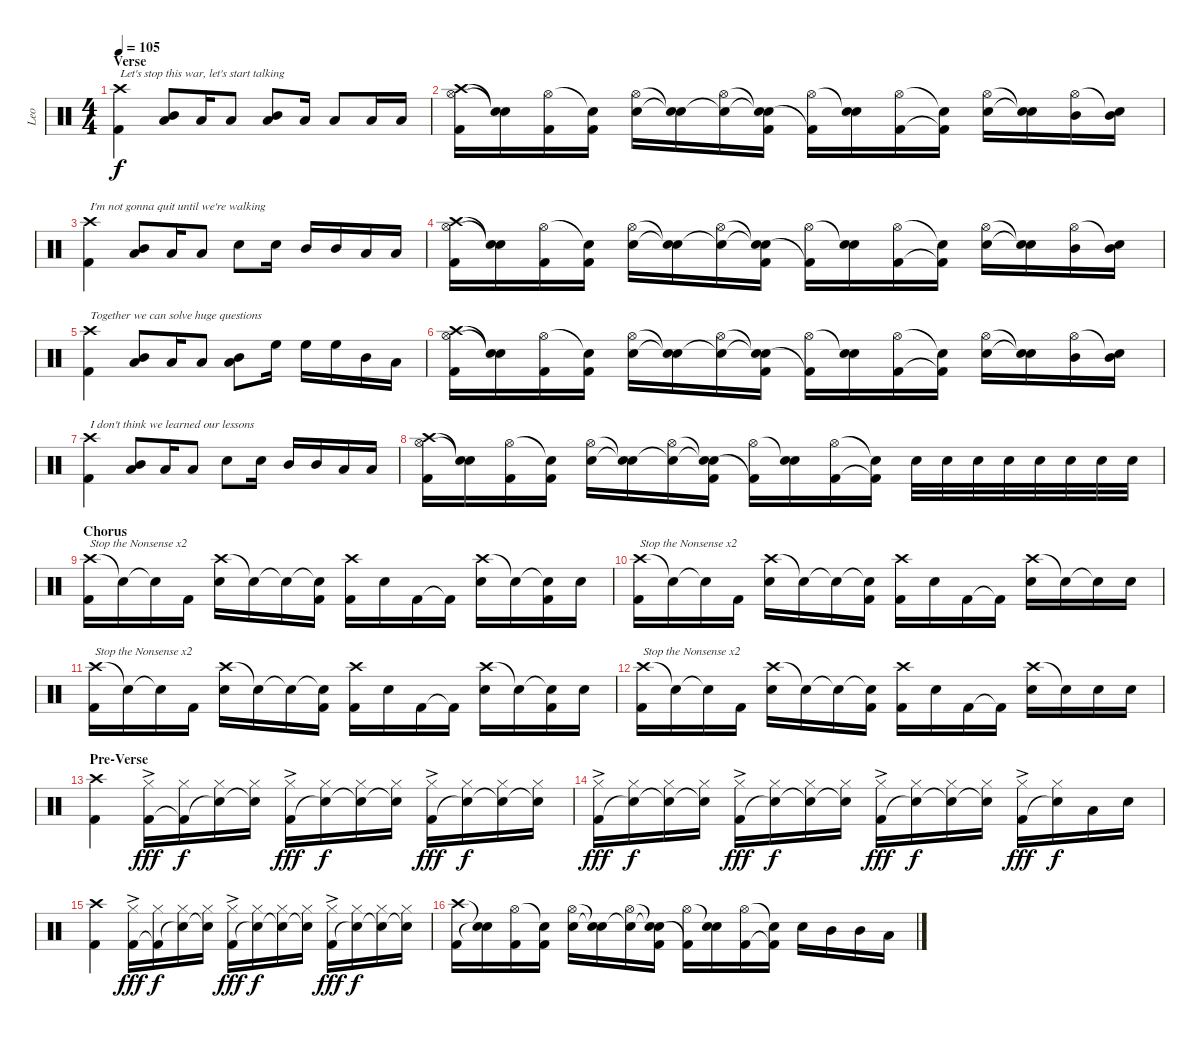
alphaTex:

\track ("Leo" "Leo") {instrument percussion}
\staff {score}
\articulation defaults
\ts (4 4)
\section ("" "Verse")
\tempo 105
\clef neutral
\ks c
("Crash high (hit)" "Kick (hit) 2").4{txt "Let's stop this war, let's start talking" dy f} ("Mid Tom (hit)" "Low Floor Tom (hit)").8 "Low Floor Tom (hit)".16 "Low Floor Tom (hit)".8 ("Mid Tom (hit)" "Low Floor Tom (hit)").8 "Low Floor Tom (hit)".16 "Low Floor Tom (hit)".8 "Low Floor Tom (hit)".16 "Low Floor Tom (hit)".16 |
("Hi-Hat (open)" "Crash high (hit)" "Kick (hit) 2").16 ("Snare (hit)"{t} "Snare (hit)"{t}).16 ("Hi-Hat (open)" "Kick (hit) 2").16 ("Snare (hit)"{t} "Kick (hit) 2").16 ("Hi-Hat (open)" "Snare (hit) 2").16 ("Snare (hit)"{t} "Snare (hit)"{t}).16 ("Hi-Hat (open)" "Snare (hit)"{t}).16 ("Snare (hit)"{t} "Snare (hit)"{t} "Kick (hit) 2").16 ("Hi-Hat (open)" "Kick (hit) 2"{t}).16 ("Snare (hit)"{t} "Snare (hit) 2").16 ("Hi-Hat (open)" "Kick (hit) 2").16 ("Snare (hit)"{t} "Kick (hit) 2"{t}).16 ("Hi-Hat (open)" "Snare (hit) 2").16 ("Snare (hit)"{t} "Snare (hit) 2"{t}).16 ("Hi-Hat (open)" "Mid Tom (hit)").16 ("Snare (hit)"{t} "Mid Tom (hit)").16 |
("Crash high (hit)" "Kick (hit) 2").4{txt "I'm not gonna quit until we're walking"} ("Mid Tom (hit)" "Low Floor Tom (hit)").8 "Low Floor Tom (hit)".16 "Low Floor Tom (hit)".8 "Snare (hit) 2".8 "Snare (hit) 2".16 "Mid Tom (hit)".16 "Mid Tom (hit)".16 "Low Floor Tom (hit)".16 "Low Floor Tom (hit)".16 |
("Hi-Hat (open)" "Crash high (hit)" "Kick (hit) 2").16 ("Snare (hit)"{t} "Snare (hit)"{t}).16 ("Hi-Hat (open)" "Kick (hit) 2").16 ("Snare (hit)"{t} "Kick (hit) 2").16 ("Hi-Hat (open)" "Snare (hit) 2").16 ("Snare (hit)"{t} "Snare (hit)"{t}).16 ("Hi-Hat (open)" "Snare (hit)"{t}).16 ("Snare (hit)"{t} "Snare (hit)"{t} "Kick (hit) 2").16 ("Hi-Hat (open)" "Kick (hit) 2"{t}).16 ("Snare (hit)"{t} "Snare (hit) 2").16 ("Hi-Hat (open)" "Kick (hit) 2").16 ("Snare (hit)"{t} "Kick (hit) 2"{t}).16 ("Hi-Hat (open)" "Snare (hit) 2").16 ("Snare (hit)"{t} "Snare (hit) 2"{t}).16 ("Hi-Hat (open)" "Mid Tom (hit)").16 ("Snare (hit)"{t} "Mid Tom (hit)").16 |
("Crash high (hit)" "Kick (hit) 2").4{txt "Together we can solve huge questions"} ("Mid Tom (hit)" "Low Floor Tom (hit)").8 "Low Floor Tom (hit)".16 "Low Floor Tom (hit)".8 ("Mid Tom (hit)" "Low Floor Tom (hit)").8 "High Floor Tom (hit)".16 "High Floor Tom (hit)".16 "High Floor Tom (hit)".16 "Mid Tom (hit)".16 "Low Floor Tom (hit)".16 |
("Hi-Hat (open)" "Crash high (hit)" "Kick (hit) 2").16 ("Snare (hit)"{t} "Snare (hit)"{t}).16 ("Hi-Hat (open)" "Kick (hit) 2").16 ("Snare (hit)"{t} "Kick (hit) 2").16 ("Hi-Hat (open)" "Snare (hit) 2").16 ("Snare (hit)"{t} "Snare (hit)"{t}).16 ("Hi-Hat (open)" "Snare (hit)"{t}).16 ("Snare (hit)"{t} "Snare (hit)"{t} "Kick (hit) 2").16 ("Hi-Hat (open)" "Kick (hit) 2"{t}).16 ("Snare (hit)"{t} "Snare (hit) 2").16 ("Hi-Hat (open)" "Kick (hit) 2").16 ("Snare (hit)"{t} "Kick (hit) 2"{t}).16 ("Hi-Hat (open)" "Snare (hit) 2").16 ("Snare (hit)"{t} "Snare (hit) 2"{t}).16 ("Hi-Hat (open)" "Mid Tom (hit)").16 ("Snare (hit)"{t} "Mid Tom (hit)").16 |
("Crash high (hit)" "Kick (hit) 2").4{txt "I don't think we learned our lessons"} ("Mid Tom (hit)" "Low Floor Tom (hit)").8 "Low Floor Tom (hit)".16 "Low Floor Tom (hit)".8 "Snare (hit) 2".8 "Snare (hit) 2".16 "Mid Tom (hit)".16 "Mid Tom (hit)".16 "Low Floor Tom (hit)".16 "Low Floor Tom (hit)".16 |
("Hi-Hat (open)" "Crash high (hit)" "Kick (hit) 2").16 ("Snare (hit)"{t} "Snare (hit)"{t}).16 ("Hi-Hat (open)" "Kick (hit) 2").16 ("Snare (hit)"{t} "Kick (hit) 2").16 ("Hi-Hat (open)" "Snare (hit) 2").16 ("Snare (hit)"{t} "Snare (hit)"{t}).16 ("Hi-Hat (open)" "Snare (hit)"{t}).16 ("Snare (hit)"{t} "Snare (hit)"{t} "Kick (hit) 2").16 ("Hi-Hat (open)" "Kick (hit) 2"{t}).16 ("Snare (hit)"{t} "Snare (hit) 2").16 ("Hi-Hat (open)" "Kick (hit) 2").16 ("Snare (hit)"{t} "Kick (hit) 2"{t}).16 "Snare (hit) 2".32 "Snare (hit) 2".32 "Snare (hit) 2".32 "Snare (hit) 2".32 "Snare (hit) 2".32 "Snare (hit) 2".32 "Snare (hit) 2".32 "Snare (hit) 2".32 |
\section ("" "Chorus")
("Crash high (hit)" "Kick (hit) 2").16{txt "Stop the Nonsense x2"} "Snare (hit)"{t}.16 "Snare (hit)"{t}.16 "Kick (hit) 2".16 ("Crash high (hit)" "Snare (hit) 2").16 "Snare (hit)"{t}.16 "Snare (hit)"{t}.16 ("Snare (hit)"{t} "Kick (hit) 2").16 ("Crash high (hit)" "Kick (hit) 2").16 "Snare (hit) 2".16 "Kick (hit) 2".16 "Kick (hit) 2"{t}.16 ("Crash high (hit)" "Snare (hit) 2").16 "Snare (hit) 2"{t}.16 ("Snare (hit)"{t} "Kick (hit) 2").16 "Snare (hit) 2".16 |
("Crash high (hit)" "Kick (hit) 2").16{txt "Stop the Nonsense x2"} "Snare (hit)"{t}.16 "Snare (hit)"{t}.16 "Kick (hit) 2".16 ("Crash high (hit)" "Snare (hit) 2").16 "Snare (hit)"{t}.16 "Snare (hit)"{t}.16 ("Snare (hit)"{t} "Kick (hit) 2").16 ("Crash high (hit)" "Kick (hit) 2").16 "Snare (hit) 2".16 "Kick (hit) 2".16 "Kick (hit) 2"{t}.16 ("Crash high (hit)" "Snare (hit) 2").16 "Snare (hit) 2"{t}.16 "Snare (hit)"{t}.16 "Snare (hit) 2".16 |
("Crash high (hit)" "Kick (hit) 2").16{txt "Stop the Nonsense x2"} "Snare (hit)"{t}.16 "Snare (hit)"{t}.16 "Kick (hit) 2".16 ("Crash high (hit)" "Snare (hit) 2").16 "Snare (hit)"{t}.16 "Snare (hit)"{t}.16 ("Snare (hit)"{t} "Kick (hit) 2").16 ("Crash high (hit)" "Kick (hit) 2").16 "Snare (hit) 2".16 "Kick (hit) 2".16 "Kick (hit) 2"{t}.16 ("Crash high (hit)" "Snare (hit) 2").16 "Snare (hit) 2"{t}.16 ("Snare (hit)"{t} "Kick (hit) 2").16 "Snare (hit) 2".16 |
("Crash high (hit)" "Kick (hit) 2").16{txt "Stop the Nonsense x2"} "Snare (hit)"{t}.16 "Snare (hit)"{t}.16 "Kick (hit) 2".16 ("Crash high (hit)" "Snare (hit) 2").16 "Snare (hit)"{t}.16 "Snare (hit)"{t}.16 ("Snare (hit)"{t} "Kick (hit) 2").16 ("Crash high (hit)" "Kick (hit) 2").16 "Snare (hit) 2".16 "Kick (hit) 2".16 "Kick (hit) 2"{t}.16 ("Crash high (hit)" "Snare (hit) 2").16 "Snare (hit) 2"{t}.16 "Snare (hit) 2".16 "Snare (hit) 2".16 |
\section ("" "Pre-Verse")
("Crash high (hit)" "Kick (hit) 2").4 ("Hi-Hat (closed)"{ac} "Kick (hit) 2").16{dy fff} ("Hi-Hat (closed)" "Kick (hit) 2"{t}).16{dy f} ("Hi-Hat (closed)" "Snare (hit)"{t}).16 ("Hi-Hat (closed)" "Snare (hit)"{t}).16 ("Hi-Hat (closed)"{ac} "Kick (hit) 2").16{dy fff} ("Hi-Hat (closed)" "Snare (hit)"{t}).16{dy f} ("Hi-Hat (closed)" "Snare (hit)"{t}).16 ("Hi-Hat (closed)" "Snare (hit)"{t}).16 ("Hi-Hat (closed)"{ac} "Kick (hit) 2").16{dy fff} ("Hi-Hat (closed)" "Snare (hit)"{t}).16{dy f} ("Hi-Hat (closed)" "Snare (hit)"{t}).16 ("Hi-Hat (closed)" "Snare (hit)"{t}).16 |
("Hi-Hat (closed)"{ac} "Kick (hit) 2").16{dy fff} ("Hi-Hat (closed)" "Snare (hit)"{t}).16{dy f} ("Hi-Hat (closed)" "Snare (hit)"{t}).16 ("Hi-Hat (closed)" "Snare (hit)"{t}).16 ("Hi-Hat (closed)"{ac} "Kick (hit) 2").16{dy fff} ("Hi-Hat (closed)" "Snare (hit)"{t}).16{dy f} ("Hi-Hat (closed)" "Snare (hit)"{t}).16 ("Hi-Hat (closed)" "Snare (hit)"{t}).16 ("Hi-Hat (closed)"{ac} "Kick (hit) 2").16{dy fff} ("Hi-Hat (closed)" "Snare (hit)"{t}).16{dy f} ("Hi-Hat (closed)" "Snare (hit)"{t}).16 ("Hi-Hat (closed)" "Snare (hit)"{t}).16 ("Hi-Hat (closed)"{ac} "Kick (hit) 2").16{dy fff} ("Hi-Hat (closed)" "Snare (hit)"{t}).16{dy f} "Low Floor Tom (hit)".16 "Snare (hit) 2".16 |
("Crash high (hit)" "Kick (hit) 2").4 ("Hi-Hat (closed)"{ac} "Kick (hit) 2").16{dy fff} ("Hi-Hat (closed)" "Kick (hit) 2"{t}).16{dy f} ("Hi-Hat (closed)" "Snare (hit)"{t}).16 ("Hi-Hat (closed)" "Snare (hit)"{t}).16 ("Hi-Hat (closed)"{ac} "Kick (hit) 2").16{dy fff} ("Hi-Hat (closed)" "Snare (hit)"{t}).16{dy f} ("Hi-Hat (closed)" "Snare (hit)"{t}).16 ("Hi-Hat (closed)" "Snare (hit)"{t}).16 ("Hi-Hat (closed)"{ac} "Kick (hit) 2").16{dy fff} ("Hi-Hat (closed)" "Snare (hit)"{t}).16{dy f} ("Hi-Hat (closed)" "Snare (hit)"{t}).16 ("Hi-Hat (closed)" "Snare (hit)"{t}).16 |
("Crash high (hit)" "Kick (hit) 2").16 ("Snare (hit)"{t} "Snare (hit)"{t}).16 ("Hi-Hat (open)" "Kick (hit) 2").16 ("Snare (hit)"{t} "Kick (hit) 2").16 ("Hi-Hat (open)" "Snare (hit) 2").16 ("Snare (hit)"{t} "Snare (hit)"{t}).16 ("Hi-Hat (open)" "Snare (hit)"{t}).16 ("Snare (hit)"{t} "Snare (hit)"{t} "Kick (hit) 2").16 ("Hi-Hat (open)" "Kick (hit) 2"{t}).16 ("Snare (hit)"{t} "Snare (hit) 2").16 ("Hi-Hat (open)" "Kick (hit) 2").16 ("Snare (hit)"{t} "Kick (hit) 2"{t}).16 "Snare (hit) 2".16 "Mid Tom (hit)".16 "Mid Tom (hit)".16 "Low Floor Tom (hit)".16
